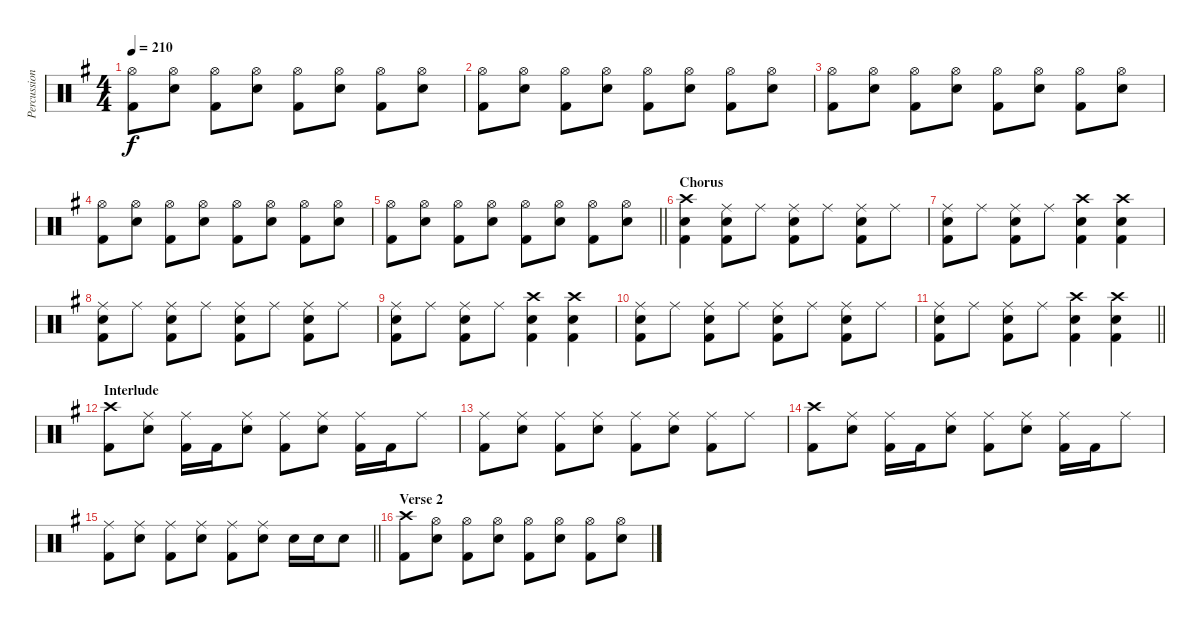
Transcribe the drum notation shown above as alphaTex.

\track ("Percussion" "Percussion") {instrument percussion}
\staff {score}
\articulation defaults
\ts (4 4)
\tempo 210
\clef neutral
\ks eminor
("Hi-Hat (open)" "Kick (hit) 2").8{dy f} ("Hi-Hat (open)" "Snare (hit) 2").8 ("Hi-Hat (open)" "Kick (hit) 2").8 ("Hi-Hat (open)" "Snare (hit) 2").8 ("Hi-Hat (open)" "Kick (hit) 2").8 ("Hi-Hat (open)" "Snare (hit) 2").8 ("Hi-Hat (open)" "Kick (hit) 2").8 ("Hi-Hat (open)" "Snare (hit) 2").8 |
("Hi-Hat (open)" "Kick (hit) 2").8 ("Hi-Hat (open)" "Snare (hit) 2").8 ("Hi-Hat (open)" "Kick (hit) 2").8 ("Hi-Hat (open)" "Snare (hit) 2").8 ("Hi-Hat (open)" "Kick (hit) 2").8 ("Hi-Hat (open)" "Snare (hit) 2").8 ("Hi-Hat (open)" "Kick (hit) 2").8 ("Hi-Hat (open)" "Snare (hit) 2").8 |
("Hi-Hat (open)" "Kick (hit) 2").8 ("Hi-Hat (open)" "Snare (hit) 2").8 ("Hi-Hat (open)" "Kick (hit) 2").8 ("Hi-Hat (open)" "Snare (hit) 2").8 ("Hi-Hat (open)" "Kick (hit) 2").8 ("Hi-Hat (open)" "Snare (hit) 2").8 ("Hi-Hat (open)" "Kick (hit) 2").8 ("Hi-Hat (open)" "Snare (hit) 2").8 |
("Hi-Hat (open)" "Kick (hit) 2").8 ("Hi-Hat (open)" "Snare (hit) 2").8 ("Hi-Hat (open)" "Kick (hit) 2").8 ("Hi-Hat (open)" "Snare (hit) 2").8 ("Hi-Hat (open)" "Kick (hit) 2").8 ("Hi-Hat (open)" "Snare (hit) 2").8 ("Hi-Hat (open)" "Kick (hit) 2").8 ("Hi-Hat (open)" "Snare (hit) 2").8 |
\barLineRight lightlight
("Hi-Hat (open)" "Kick (hit) 2").8 ("Hi-Hat (open)" "Snare (hit) 2").8 ("Hi-Hat (open)" "Kick (hit) 2").8 ("Hi-Hat (open)" "Snare (hit) 2").8 ("Hi-Hat (open)" "Kick (hit) 2").8 ("Hi-Hat (open)" "Snare (hit) 2").8 ("Hi-Hat (open)" "Kick (hit) 2").8 ("Hi-Hat (open)" "Snare (hit) 2").8 |
\section ("" "Chorus")
("Crash high (hit)" "Snare (hit) 2" "Kick (hit) 2").4 ("Ride (middle)" "Snare (hit) 2" "Kick (hit) 2").8 "Ride (middle)".8 ("Ride (middle)" "Snare (hit) 2" "Kick (hit) 2").8 "Ride (middle)".8 ("Ride (middle)" "Snare (hit) 2" "Kick (hit) 2").8 "Ride (middle)".8 |
("Ride (middle)" "Snare (hit) 2" "Kick (hit) 2").8 "Ride (middle)".8 ("Ride (middle)" "Snare (hit) 2" "Kick (hit) 2").8 "Ride (middle)".8 ("Crash high (hit)" "Snare (hit) 2" "Kick (hit) 2").4 ("Crash high (hit)" "Snare (hit) 2" "Kick (hit) 2").4 |
("Ride (middle)" "Snare (hit) 2" "Kick (hit) 2").8 "Ride (middle)".8 ("Ride (middle)" "Snare (hit) 2" "Kick (hit) 2").8 "Ride (middle)".8 ("Ride (middle)" "Snare (hit) 2" "Kick (hit) 2").8 "Ride (middle)".8 ("Ride (middle)" "Snare (hit) 2" "Kick (hit) 2").8 "Ride (middle)".8 |
("Ride (middle)" "Snare (hit) 2" "Kick (hit) 2").8 "Ride (middle)".8 ("Ride (middle)" "Snare (hit) 2" "Kick (hit) 2").8 "Ride (middle)".8 ("Crash high (hit)" "Snare (hit) 2" "Kick (hit) 2").4 ("Crash high (hit)" "Snare (hit) 2" "Kick (hit) 2").4 |
("Ride (middle)" "Snare (hit) 2" "Kick (hit) 2").8 "Ride (middle)".8 ("Ride (middle)" "Snare (hit) 2" "Kick (hit) 2").8 "Ride (middle)".8 ("Ride (middle)" "Snare (hit) 2" "Kick (hit) 2").8 "Ride (middle)".8 ("Ride (middle)" "Snare (hit) 2" "Kick (hit) 2").8 "Ride (middle)".8 |
\barLineRight lightlight
("Ride (middle)" "Snare (hit) 2" "Kick (hit) 2").8 "Ride (middle)".8 ("Ride (middle)" "Snare (hit) 2" "Kick (hit) 2").8 "Ride (middle)".8 ("Crash high (hit)" "Snare (hit) 2" "Kick (hit) 2").4 ("Crash high (hit)" "Snare (hit) 2" "Kick (hit) 2").4 |
\section ("" "Interlude")
("Crash high (hit)" "Kick (hit) 2").8 ("Ride (middle)" "Snare (hit) 2").8 ("Ride (middle)" "Kick (hit) 2").16 "Kick (hit) 2".16 ("Ride (middle)" "Snare (hit) 2").8 ("Ride (middle)" "Kick (hit) 2").8 ("Ride (middle)" "Snare (hit) 2").8 ("Ride (middle)" "Kick (hit) 2").16 "Kick (hit) 2".16 "Ride (middle)".8 |
("Ride (middle)" "Kick (hit) 2").8 ("Ride (middle)" "Snare (hit) 2").8 ("Ride (middle)" "Kick (hit) 2").8 ("Ride (middle)" "Snare (hit) 2").8 ("Ride (middle)" "Kick (hit) 2").8 ("Ride (middle)" "Snare (hit) 2").8 ("Ride (middle)" "Kick (hit) 2").8 "Ride (middle)".8 |
("Crash high (hit)" "Kick (hit) 2").8 ("Ride (middle)" "Snare (hit) 2").8 ("Ride (middle)" "Kick (hit) 2").16 "Kick (hit) 2".16 ("Ride (middle)" "Snare (hit) 2").8 ("Ride (middle)" "Kick (hit) 2").8 ("Ride (middle)" "Snare (hit) 2").8 ("Ride (middle)" "Kick (hit) 2").16 "Kick (hit) 2".16 "Ride (middle)".8 |
\barLineRight lightlight
("Ride (middle)" "Kick (hit) 2").8 ("Ride (middle)" "Snare (hit) 2").8 ("Ride (middle)" "Kick (hit) 2").8 ("Ride (middle)" "Snare (hit) 2").8 ("Ride (middle)" "Kick (hit) 2").8 ("Ride (middle)" "Snare (hit) 2").8 "Snare (hit) 2".16 "Snare (hit) 2".16 "Snare (hit) 2".8 |
\section ("" "Verse 2")
("Crash high (hit)" "Kick (hit) 2").8 ("Hi-Hat (open)" "Snare (hit) 2").8 ("Hi-Hat (open)" "Kick (hit) 2").8 ("Hi-Hat (open)" "Snare (hit) 2").8 ("Hi-Hat (open)" "Kick (hit) 2").8 ("Hi-Hat (open)" "Snare (hit) 2").8 ("Hi-Hat (open)" "Kick (hit) 2").8 ("Hi-Hat (open)" "Snare (hit) 2").8
